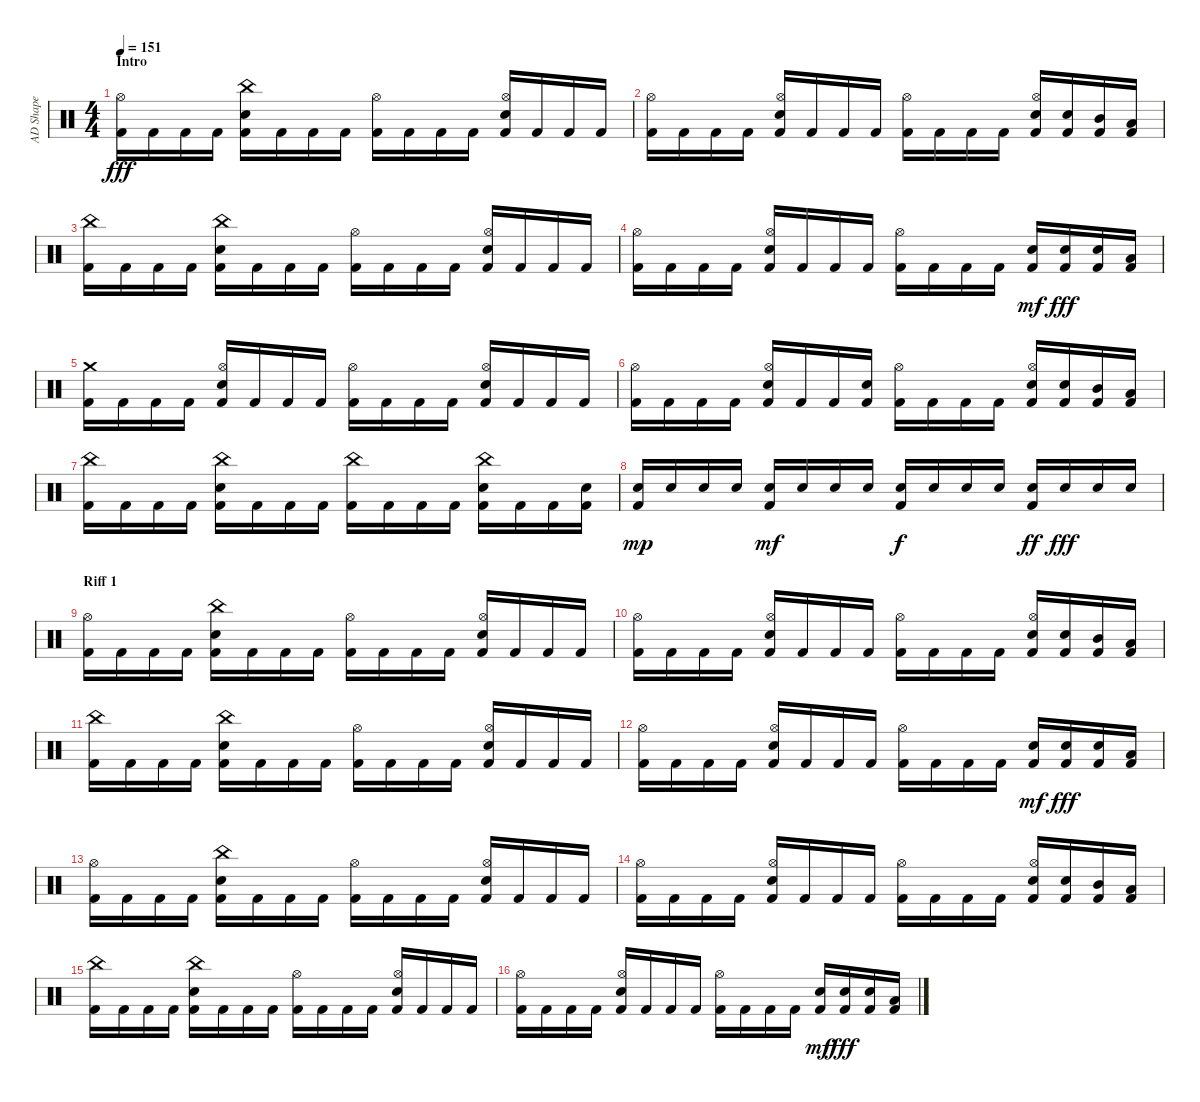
\track ("AD Shape" "AD Shape") {instrument percussion}
\staff {score}
\articulation defaults
\ts (4 4)
\section ("" "Intro")
\tempo 151
\clef neutral
\ks c
("Kick (hit) 2" "Hi-Hat (open)").16{dy fff} "Kick (hit) 2".16 "Kick (hit) 2".16 "Kick (hit) 2".16 ("Kick (hit) 2" "Snare (hit) 2" "China (hit)").16 "Kick (hit) 2".16 "Kick (hit) 2".16 "Kick (hit) 2".16 ("Kick (hit) 2" "Hi-Hat (open)").16 "Kick (hit) 2".16 "Kick (hit) 2".16 "Kick (hit) 2".16 ("Kick (hit) 2" "Snare (hit) 2" "Hi-Hat (open)").16 "Kick (hit) 2".16 "Kick (hit) 2".16 "Kick (hit) 2".16 |
("Kick (hit) 2" "Hi-Hat (open)").16 "Kick (hit) 2".16 "Kick (hit) 2".16 "Kick (hit) 2".16 ("Kick (hit) 2" "Snare (hit) 2" "Hi-Hat (open)").16 "Kick (hit) 2".16 "Kick (hit) 2".16 "Kick (hit) 2".16 ("Kick (hit) 2" "Hi-Hat (open)").16 "Kick (hit) 2".16 "Kick (hit) 2".16 "Kick (hit) 2".16 ("Kick (hit) 2" "Snare (hit) 2" "Hi-Hat (open)").16 ("Kick (hit) 2" "Snare (hit) 2").16 ("Kick (hit) 2" "Mid Tom (hit)").16 ("Kick (hit) 2" "Low Tom (hit)").16 |
("Kick (hit) 2" "China (hit)").16 "Kick (hit) 2".16 "Kick (hit) 2".16 "Kick (hit) 2".16 ("Kick (hit) 2" "Snare (hit) 2" "China (hit)").16 "Kick (hit) 2".16 "Kick (hit) 2".16 "Kick (hit) 2".16 ("Kick (hit) 2" "Hi-Hat (open)").16 "Kick (hit) 2".16 "Kick (hit) 2".16 "Kick (hit) 2".16 ("Kick (hit) 2" "Snare (hit) 2" "Hi-Hat (open)").16 "Kick (hit) 2".16 "Kick (hit) 2".16 "Kick (hit) 2".16 |
("Kick (hit) 2" "Hi-Hat (open)").16 "Kick (hit) 2".16 "Kick (hit) 2".16 "Kick (hit) 2".16 ("Kick (hit) 2" "Snare (hit) 2" "Hi-Hat (open)").16 "Kick (hit) 2".16 "Kick (hit) 2".16 "Kick (hit) 2".16 ("Kick (hit) 2" "Hi-Hat (open)").16 "Kick (hit) 2".16 "Kick (hit) 2".16 "Kick (hit) 2".16 ("Kick (hit) 2" "Snare (hit) 2").16{dy mf} ("Kick (hit) 2" "Snare (hit) 2").16{dy fff} ("Kick (hit) 2" "Snare (hit) 2").16 ("Kick (hit) 2" "Low Tom (hit)").16 |
("Kick (hit) 2" "Crash medium (hit)").16 "Kick (hit) 2".16 "Kick (hit) 2".16 "Kick (hit) 2".16 ("Kick (hit) 2" "Snare (hit) 2" "Hi-Hat (open)").16 "Kick (hit) 2".16 "Kick (hit) 2".16 "Kick (hit) 2".16 ("Kick (hit) 2" "Hi-Hat (open)").16 "Kick (hit) 2".16 "Kick (hit) 2".16 "Kick (hit) 2".16 ("Kick (hit) 2" "Snare (hit) 2" "Hi-Hat (open)").16 "Kick (hit) 2".16 "Kick (hit) 2".16 "Kick (hit) 2".16 |
("Kick (hit) 2" "Hi-Hat (open)").16 "Kick (hit) 2".16 "Kick (hit) 2".16 "Kick (hit) 2".16 ("Kick (hit) 2" "Snare (hit) 2" "Hi-Hat (open)").16 "Kick (hit) 2".16 "Kick (hit) 2".16 ("Kick (hit) 2" "Snare (hit) 2").16 ("Kick (hit) 2" "Hi-Hat (open)").16 "Kick (hit) 2".16 "Kick (hit) 2".16 "Kick (hit) 2".16 ("Kick (hit) 2" "Snare (hit) 2" "Hi-Hat (open)").16 ("Kick (hit) 2" "Snare (hit) 2").16 ("Kick (hit) 2" "Mid Tom (hit)").16 ("Kick (hit) 2" "Low Tom (hit)").16 |
("Kick (hit) 2" "China (hit)").16 "Kick (hit) 2".16 "Kick (hit) 2".16 "Kick (hit) 2".16 ("Kick (hit) 2" "Snare (hit) 2" "China (hit)").16 "Kick (hit) 2".16 "Kick (hit) 2".16 "Kick (hit) 2".16 ("Kick (hit) 2" "China (hit)").16 "Kick (hit) 2".16 "Kick (hit) 2".16 "Kick (hit) 2".16 ("Kick (hit) 2" "Snare (hit) 2" "China (hit)").16 "Kick (hit) 2".16 "Kick (hit) 2".16 ("Kick (hit) 2" "Snare (hit) 2").16 |
("Kick (hit) 2" "Snare (hit) 2").16{dy mp} "Snare (hit) 2".16 "Snare (hit) 2".16 "Snare (hit) 2".16 ("Kick (hit) 2" "Snare (hit) 2").16{dy mf} "Snare (hit) 2".16 "Snare (hit) 2".16 "Snare (hit) 2".16 ("Kick (hit) 2" "Snare (hit) 2").16{dy f} "Snare (hit) 2".16 "Snare (hit) 2".16 "Snare (hit) 2".16 ("Kick (hit) 2" "Snare (hit) 2").16{dy ff} "Snare (hit) 2".16{dy fff} "Snare (hit) 2".16 "Snare (hit) 2".16 |
\section ("" "Riff 1")
("Kick (hit) 2" "Hi-Hat (open)").16 "Kick (hit) 2".16 "Kick (hit) 2".16 "Kick (hit) 2".16 ("Kick (hit) 2" "Snare (hit) 2" "China (hit)").16 "Kick (hit) 2".16 "Kick (hit) 2".16 "Kick (hit) 2".16 ("Kick (hit) 2" "Hi-Hat (open)").16 "Kick (hit) 2".16 "Kick (hit) 2".16 "Kick (hit) 2".16 ("Kick (hit) 2" "Snare (hit) 2" "Hi-Hat (open)").16 "Kick (hit) 2".16 "Kick (hit) 2".16 "Kick (hit) 2".16 |
("Kick (hit) 2" "Hi-Hat (open)").16 "Kick (hit) 2".16 "Kick (hit) 2".16 "Kick (hit) 2".16 ("Kick (hit) 2" "Snare (hit) 2" "Hi-Hat (open)").16 "Kick (hit) 2".16 "Kick (hit) 2".16 "Kick (hit) 2".16 ("Kick (hit) 2" "Hi-Hat (open)").16 "Kick (hit) 2".16 "Kick (hit) 2".16 "Kick (hit) 2".16 ("Kick (hit) 2" "Snare (hit) 2" "Hi-Hat (open)").16 ("Kick (hit) 2" "Snare (hit) 2").16 ("Kick (hit) 2" "Mid Tom (hit)").16 ("Kick (hit) 2" "Low Tom (hit)").16 |
("Kick (hit) 2" "China (hit)").16 "Kick (hit) 2".16 "Kick (hit) 2".16 "Kick (hit) 2".16 ("Kick (hit) 2" "Snare (hit) 2" "China (hit)").16 "Kick (hit) 2".16 "Kick (hit) 2".16 "Kick (hit) 2".16 ("Kick (hit) 2" "Hi-Hat (open)").16 "Kick (hit) 2".16 "Kick (hit) 2".16 "Kick (hit) 2".16 ("Kick (hit) 2" "Snare (hit) 2" "Hi-Hat (open)").16 "Kick (hit) 2".16 "Kick (hit) 2".16 "Kick (hit) 2".16 |
("Kick (hit) 2" "Hi-Hat (open)").16 "Kick (hit) 2".16 "Kick (hit) 2".16 "Kick (hit) 2".16 ("Kick (hit) 2" "Snare (hit) 2" "Hi-Hat (open)").16 "Kick (hit) 2".16 "Kick (hit) 2".16 "Kick (hit) 2".16 ("Kick (hit) 2" "Hi-Hat (open)").16 "Kick (hit) 2".16 "Kick (hit) 2".16 "Kick (hit) 2".16 ("Kick (hit) 2" "Snare (hit) 2").16{dy mf} ("Kick (hit) 2" "Snare (hit) 2").16{dy fff} ("Kick (hit) 2" "Snare (hit) 2").16 ("Kick (hit) 2" "Low Tom (hit)").16 |
("Kick (hit) 2" "Hi-Hat (open)").16 "Kick (hit) 2".16 "Kick (hit) 2".16 "Kick (hit) 2".16 ("Kick (hit) 2" "Snare (hit) 2" "China (hit)").16 "Kick (hit) 2".16 "Kick (hit) 2".16 "Kick (hit) 2".16 ("Kick (hit) 2" "Hi-Hat (open)").16 "Kick (hit) 2".16 "Kick (hit) 2".16 "Kick (hit) 2".16 ("Kick (hit) 2" "Snare (hit) 2" "Hi-Hat (open)").16 "Kick (hit) 2".16 "Kick (hit) 2".16 "Kick (hit) 2".16 |
("Kick (hit) 2" "Hi-Hat (open)").16 "Kick (hit) 2".16 "Kick (hit) 2".16 "Kick (hit) 2".16 ("Kick (hit) 2" "Snare (hit) 2" "Hi-Hat (open)").16 "Kick (hit) 2".16 "Kick (hit) 2".16 "Kick (hit) 2".16 ("Kick (hit) 2" "Hi-Hat (open)").16 "Kick (hit) 2".16 "Kick (hit) 2".16 "Kick (hit) 2".16 ("Kick (hit) 2" "Snare (hit) 2" "Hi-Hat (open)").16 ("Kick (hit) 2" "Snare (hit) 2").16 ("Kick (hit) 2" "Mid Tom (hit)").16 ("Kick (hit) 2" "Low Tom (hit)").16 |
("Kick (hit) 2" "China (hit)").16 "Kick (hit) 2".16 "Kick (hit) 2".16 "Kick (hit) 2".16 ("Kick (hit) 2" "Snare (hit) 2" "China (hit)").16 "Kick (hit) 2".16 "Kick (hit) 2".16 "Kick (hit) 2".16 ("Kick (hit) 2" "Hi-Hat (open)").16 "Kick (hit) 2".16 "Kick (hit) 2".16 "Kick (hit) 2".16 ("Kick (hit) 2" "Snare (hit) 2" "Hi-Hat (open)").16 "Kick (hit) 2".16 "Kick (hit) 2".16 "Kick (hit) 2".16 |
("Kick (hit) 2" "Hi-Hat (open)").16 "Kick (hit) 2".16 "Kick (hit) 2".16 "Kick (hit) 2".16 ("Kick (hit) 2" "Snare (hit) 2" "Hi-Hat (open)").16 "Kick (hit) 2".16 "Kick (hit) 2".16 "Kick (hit) 2".16 ("Kick (hit) 2" "Hi-Hat (open)").16 "Kick (hit) 2".16 "Kick (hit) 2".16 "Kick (hit) 2".16 ("Kick (hit) 2" "Snare (hit) 2").16{dy mf} ("Kick (hit) 2" "Snare (hit) 2").16{dy fff} ("Kick (hit) 2" "Snare (hit) 2").16 ("Kick (hit) 2" "Low Tom (hit)").16
